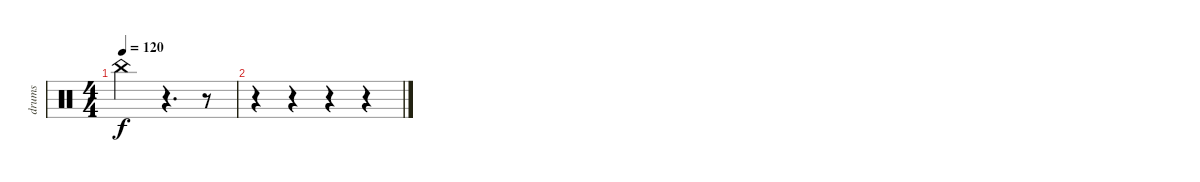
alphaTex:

\track ("drums" "drums") {instrument percussion}
\staff {score}
\articulation defaults
\ts (4 4)
\tempo 120
\clef neutral
\ks c "China (hit)".2{dy f}
r.4{d} r.8 |
r.4 r.4 r.4 r.4
